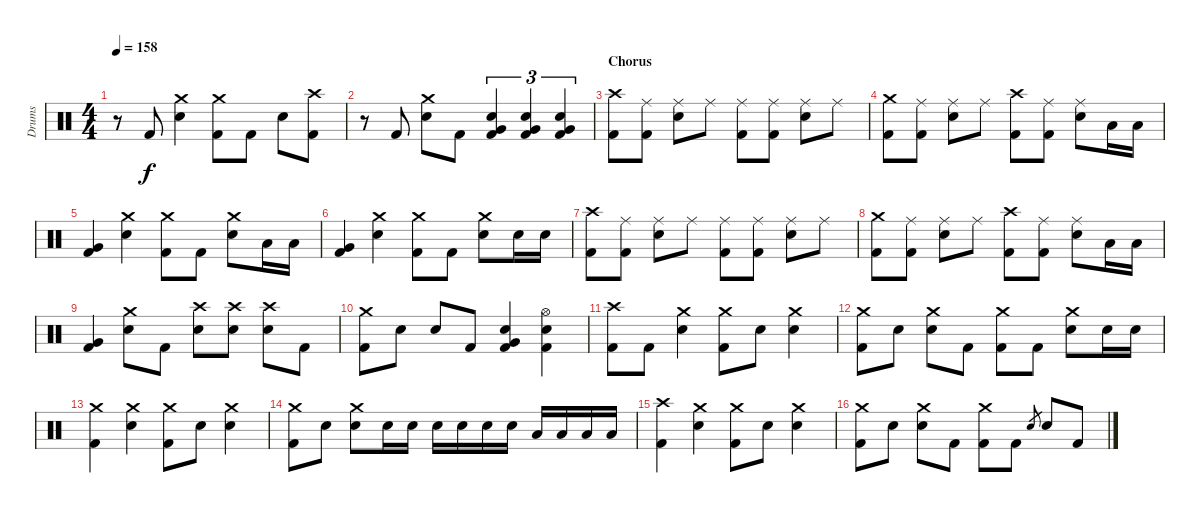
\track ("Drums" "Drums") {instrument percussion}
\staff {score}
\articulation defaults
\ts (4 4)
\tempo 158
\clef neutral
\ks c
r.8{dy f} "Kick (hit) 2".8 ("Crash medium (hit)" "Snare (hit) 2").4 ("Crash medium (hit)" "Kick (hit) 2").8 "Kick (hit) 2".8 "Snare (hit) 2".8 ("Crash high (hit)" "Kick (hit) 2").8 |
r.8 "Kick (hit) 2".8 ("Crash medium (hit)" "Snare (hit) 2").8 "Kick (hit) 2".8 ("Snare (hit) 2" "Very Low Tom (hit)" "Kick (hit) 2").4{tu (3 2)} ("Snare (hit) 2" "Very Low Tom (hit)" "Kick (hit) 2").4{tu (3 2)} ("Snare (hit) 2" "Very Low Tom (hit)" "Kick (hit) 2").4{tu (3 2)} |
\section ("" "Chorus")
("Crash high (hit)" "Kick (hit) 2").8 ("Ride (middle)" "Kick (hit) 2").8 ("Ride (middle)" "Snare (hit) 2").8 "Ride (middle)".8 ("Ride (middle)" "Kick (hit) 2").8 ("Ride (middle)" "Kick (hit) 2").8 ("Ride (middle)" "Snare (hit) 2").8 "Ride (middle)".8 |
("Crash medium (hit)" "Kick (hit) 2").8 ("Ride (middle)" "Kick (hit) 2").8 ("Ride (middle)" "Snare (hit) 2").8 "Ride (middle)".8 ("Crash high (hit)" "Kick (hit) 2").8 ("Ride (middle)" "Kick (hit) 2").8 ("Ride (middle)" "Snare (hit) 2").8 "Low Tom (hit)".16 "Low Tom (hit)".16 |
("Very Low Tom (hit)" "Kick (hit) 2").4 ("Crash medium (hit)" "Snare (hit) 2").4 ("Crash medium (hit)" "Kick (hit) 2").8 "Kick (hit) 2".8 ("Crash medium (hit)" "Snare (hit) 2").8 "Low Tom (hit)".16 "Low Tom (hit)".16 |
("Very Low Tom (hit)" "Kick (hit) 2").4 ("Crash medium (hit)" "Snare (hit) 2").4 ("Crash medium (hit)" "Kick (hit) 2").8 "Kick (hit) 2".8 ("Crash medium (hit)" "Snare (hit) 2").8 "Snare (hit) 2".16 "Snare (hit) 2".16 |
("Crash high (hit)" "Kick (hit) 2").8 ("Ride (middle)" "Kick (hit) 2").8 ("Ride (middle)" "Snare (hit) 2").8 "Ride (middle)".8 ("Ride (middle)" "Kick (hit) 2").8 ("Ride (middle)" "Kick (hit) 2").8 ("Ride (middle)" "Snare (hit) 2").8 "Ride (middle)".8 |
("Crash medium (hit)" "Kick (hit) 2").8 ("Ride (middle)" "Kick (hit) 2").8 ("Ride (middle)" "Snare (hit) 2").8 "Ride (middle)".8 ("Crash high (hit)" "Kick (hit) 2").8 ("Ride (middle)" "Kick (hit) 2").8 ("Ride (middle)" "Snare (hit) 2").8 "Low Tom (hit)".16 "Low Tom (hit)".16 |
("Very Low Tom (hit)" "Kick (hit) 2").4 ("Crash medium (hit)" "Snare (hit) 2").8 "Kick (hit) 2".8 ("Crash high (hit)" "Snare (hit) 2").8 ("Crash high (hit)" "Snare (hit) 2").8 ("Crash high (hit)" "Snare (hit) 2").8 "Kick (hit) 2".8 |
("Crash medium (hit)" "Kick (hit) 2").8 "Snare (hit) 2".8 "Snare (hit) 2".8 "Kick (hit) 2".8 ("Snare (hit) 2" "Very Low Tom (hit)" "Kick (hit) 2").4 ("Hi-Hat (open)" "Snare (hit) 2" "Kick (hit) 2").4 |
("Crash high (hit)" "Kick (hit) 2").8 "Kick (hit) 2".8 ("Crash medium (hit)" "Snare (hit) 2").4 ("Crash medium (hit)" "Kick (hit) 2").8 "Snare (hit) 2".8 ("Crash medium (hit)" "Snare (hit) 2").4 |
("Crash medium (hit)" "Kick (hit) 2").8 "Snare (hit) 2".8 ("Crash medium (hit)" "Snare (hit) 2").8 "Kick (hit) 2".8 ("Crash medium (hit)" "Kick (hit) 2").8 "Kick (hit) 2".8 ("Crash medium (hit)" "Snare (hit) 2").8 "Snare (hit) 2".16 "Snare (hit) 2".16 |
("Crash medium (hit)" "Kick (hit) 2").4 ("Crash medium (hit)" "Snare (hit) 2").4 ("Crash medium (hit)" "Kick (hit) 2").8 "Snare (hit) 2".8 ("Crash medium (hit)" "Snare (hit) 2").4 |
("Crash medium (hit)" "Kick (hit) 2").8 "Snare (hit) 2".8 ("Crash medium (hit)" "Snare (hit) 2").8 "Snare (hit) 2".16 "Snare (hit) 2".16 "Snare (hit) 2".16 "Snare (hit) 2".16 "Snare (hit) 2".16 "Snare (hit) 2".16 "Low Tom (hit)".16 "Low Tom (hit)".16 "Low Tom (hit)".16 "Low Tom (hit)".16 |
("Crash high (hit)" "Kick (hit) 2").4 ("Crash medium (hit)" "Snare (hit) 2").4 ("Crash medium (hit)" "Kick (hit) 2").8 "Snare (hit) 2".8 ("Crash medium (hit)" "Snare (hit) 2").4 |
("Crash medium (hit)" "Kick (hit) 2").8 "Snare (hit) 2".8 ("Crash medium (hit)" "Snare (hit) 2").8 "Kick (hit) 2".8 ("Crash medium (hit)" "Kick (hit) 2").8 "Kick (hit) 2".8 "Snare (hit) 2".8{gr} "Snare (hit) 2".8 "Kick (hit) 2".8
